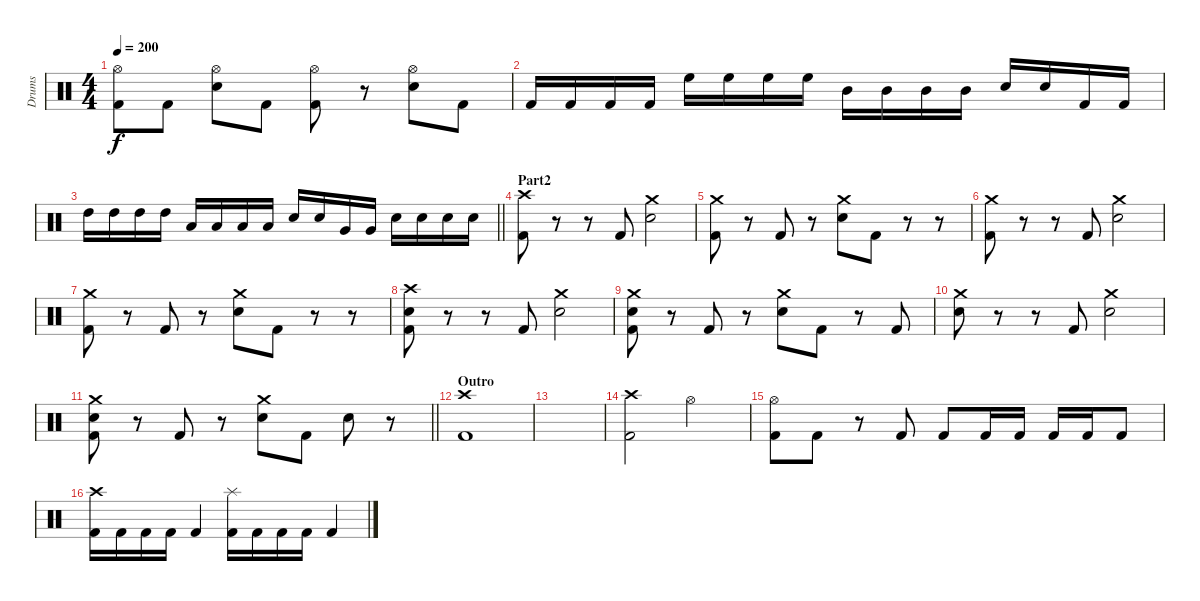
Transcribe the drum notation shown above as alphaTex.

\track ("Drums" "Drums") {instrument percussion}
\staff {score}
\articulation defaults
\ts (4 4)
\tempo 200
\clef neutral
\ks c
("Hi-Hat (open)" "Kick (hit) 2").8{dy f} "Kick (hit) 2".8 ("Hi-Hat (open)" "Electric Snare (hit)").8 "Kick (hit) 2".8 ("Hi-Hat (open)" "Kick (hit) 2").8 r.8 ("Hi-Hat (open)" "Electric Snare (hit)").8 "Kick (hit) 2".8 |
"Kick (hit) 2".16 "Kick (hit) 2".16 "Kick (hit) 2".16 "Kick (hit) 2".16 "High Floor Tom (hit)".16 "High Floor Tom (hit)".16 "High Floor Tom (hit)".16 "High Floor Tom (hit)".16 "Mid Tom (hit)".16 "Mid Tom (hit)".16 "Mid Tom (hit)".16 "Mid Tom (hit)".16 "Electric Snare (hit)".16 "Electric Snare (hit)".16 "Kick (hit) 2".16 "Kick (hit) 2".16 |
\barLineRight lightlight "High Tom (hit)".16 "High Tom (hit)".16 "High Tom (hit)".16 "High Tom (hit)".16 "Low Tom (hit)".16 "Low Tom (hit)".16 "Low Tom (hit)".16 "Low Tom (hit)".16 "Electric Snare (hit)".16 "Electric Snare (hit)".16 "Very Low Tom (hit)".16 "Very Low Tom (hit)".16 "Electric Snare (hit)".16 "Electric Snare (hit)".16 "Electric Snare (hit)".16 "Electric Snare (hit)".16
|
\section ("" "Part2")
("Crash high (hit)" "Kick (hit) 2").8 r.8 r.8 "Kick (hit) 2".8 ("Crash medium (hit)" "Electric Snare (hit)").2 |
("Crash medium (hit)" "Kick (hit) 2").8 r.8 "Kick (hit) 2".8 r.8 ("Crash medium (hit)" "Electric Snare (hit)").8 "Kick (hit) 2".8 r.8 r.8 |
("Crash medium (hit)" "Kick (hit) 2").8 r.8 r.8 "Kick (hit) 2".8 ("Crash medium (hit)" "Electric Snare (hit)").2 |
("Crash medium (hit)" "Kick (hit) 2").8 r.8 "Kick (hit) 2".8 r.8 ("Crash medium (hit)" "Electric Snare (hit)").8 "Kick (hit) 2".8 r.8 r.8 |
("Crash high (hit)" "Electric Snare (hit)" "Kick (hit) 2").8 r.8 r.8 "Kick (hit) 2".8 ("Crash medium (hit)" "Electric Snare (hit)").2 |
("Crash medium (hit)" "Electric Snare (hit)" "Kick (hit) 2").8 r.8 "Kick (hit) 2".8 r.8 ("Crash medium (hit)" "Electric Snare (hit)").8 "Kick (hit) 2".8 r.8 "Kick (hit) 2".8 |
("Crash medium (hit)" "Electric Snare (hit)").8 r.8 r.8 "Kick (hit) 2".8 ("Crash medium (hit)" "Electric Snare (hit)").2 |
\barLineRight lightlight
("Crash medium (hit)" "Electric Snare (hit)" "Kick (hit) 2").8 r.8 "Kick (hit) 2".8 r.8 ("Crash medium (hit)" "Electric Snare (hit)").8 "Kick (hit) 2".8 "Electric Snare (hit)".8 r.8 |
\section ("" "Outro")
("Crash high (hit)" "Kick (hit) 2").1 |
|
("Crash high (hit)" "Kick (hit) 2").2 "Hi-Hat (open)".2 |
("Hi-Hat (open)" "Kick (hit) 2").8 "Kick (hit) 2".8 r.8 "Kick (hit) 2".8 "Kick (hit) 2".8 "Kick (hit) 2".16 "Kick (hit) 2".16 "Kick (hit) 2".16 "Kick (hit) 2".16 "Kick (hit) 2".8 |
("Crash high (hit)" "Kick (hit) 2").16 "Kick (hit) 2".16 "Kick (hit) 2".16 "Kick (hit) 2".16 "Kick (hit) 2".4 ("Splash (hit)" "Kick (hit) 2").16 "Kick (hit) 2".16 "Kick (hit) 2".16 "Kick (hit) 2".16 "Kick (hit) 2".4
